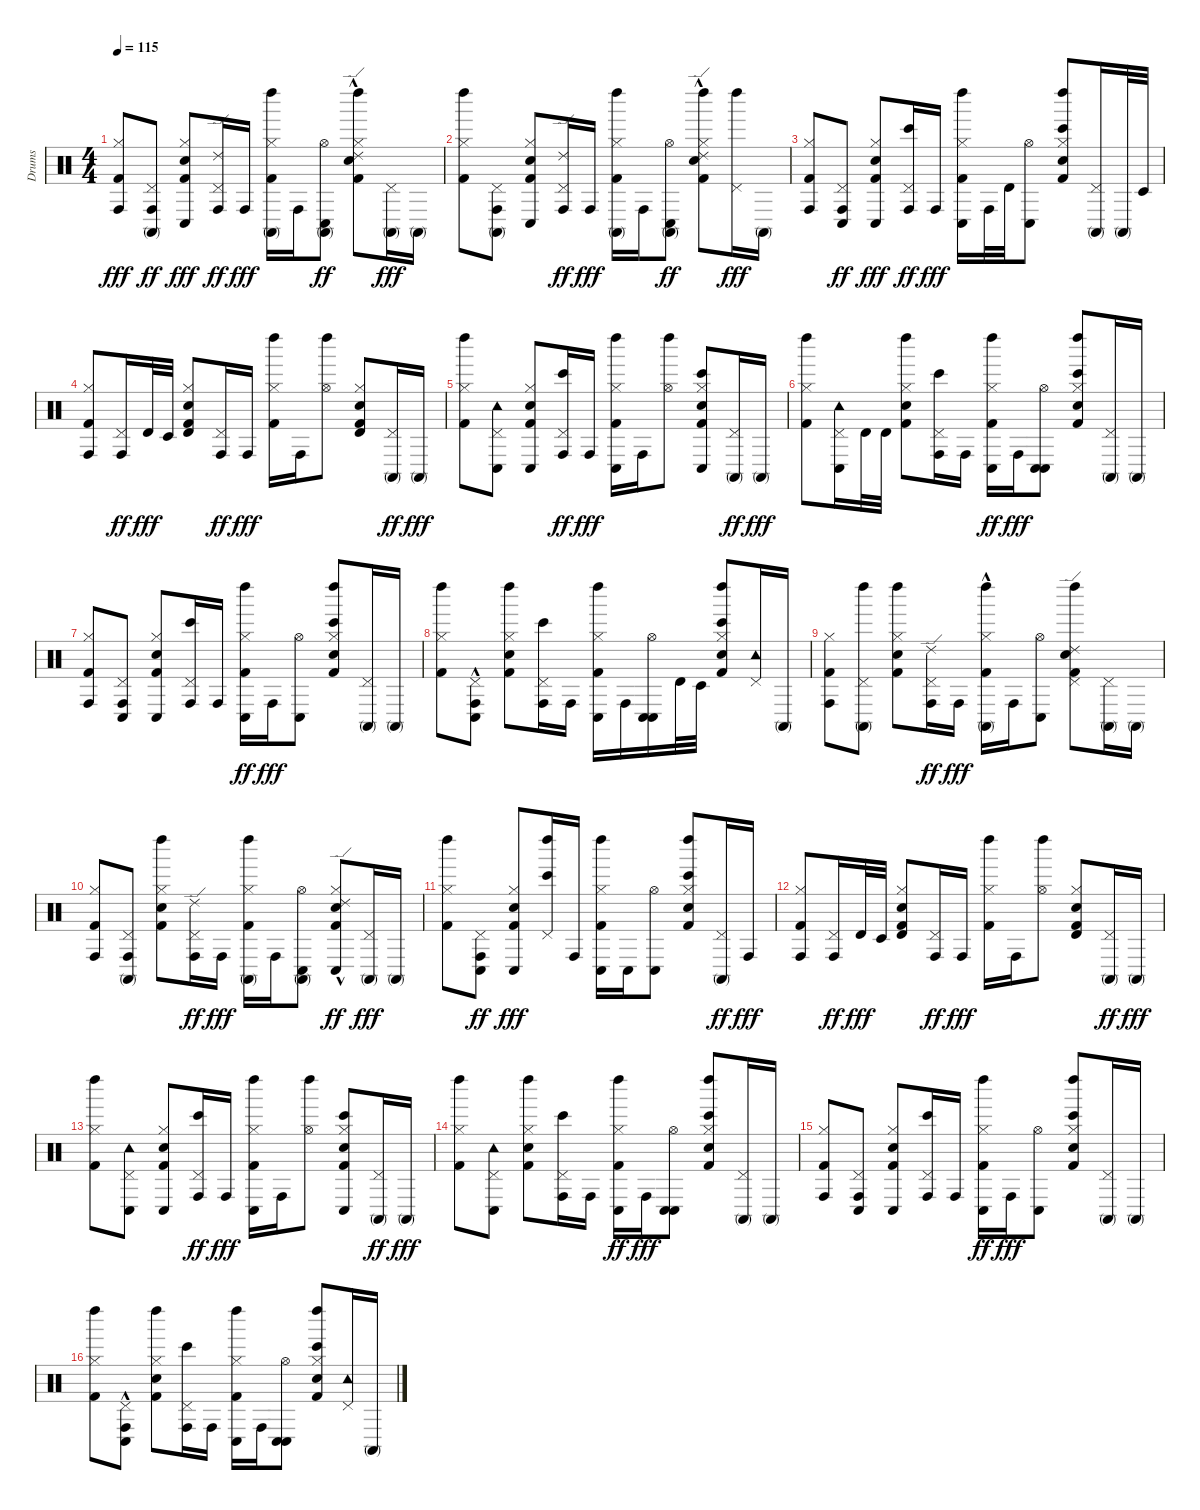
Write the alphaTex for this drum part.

\track ("Drums" "Drums") {instrument percussion}
\staff {score}
\articulation defaults
\ts (4 4)
\tempo 115
\clef neutral
\ks c
("Conga high (hit)" "Hi-Hat (closed)" "Kick (hit) 2").8{dy fff} ("Conga high (mute)" "Conga high (hit)" "Pedal Hi-Hat (hit)").8{dy ff} ("Conga low (hit)" "Hi-Hat (closed)" "Snare (hit) 2" "Kick (hit) 2").8{dy fff} ("Conga high (hit)" "Pedal Hi-Hat (hit)" "Ride (edge) 2").16{dy ff} "Conga high (hit)".16{dy fff} ("Conga high (mute)" "Left Maraca (hit)" "Hi-Hat (closed)" "Kick (hit) 2").16 "Conga high (hit)".16 ("Conga low (hit)" "Hi-Hat (open)" "Conga high (mute)").8{dy ff} ("Left Maraca (hit)" "Hi-Hat (closed)" "Snare (hit) 2" "Kick (hit) 2" "Ride (edge) 2"{hac}).8 ("Conga high (mute)" "Pedal Hi-Hat (hit)").16{dy fff} "Conga high (mute)".16 |
("Left Maraca (hit)" "Hi-Hat (closed)" "Kick (hit) 2").8 ("Conga high (mute)" "Conga high (hit)" "Pedal Hi-Hat (hit)").8 ("Conga low (hit)" "Hi-Hat (closed)" "Snare (hit) 2" "Kick (hit) 2").8 ("Conga high (hit)" "Pedal Hi-Hat (hit)" "Ride (edge) 2").16{dy ff} "Conga high (hit)".16{dy fff} ("Conga high (mute)" "Left Maraca (hit)" "Hi-Hat (closed)" "Kick (hit) 2").16 "Conga high (hit)".16 ("Conga low (hit)" "Hi-Hat (open)" "Conga high (mute)").8{dy ff} ("Left Maraca (hit)" "Hi-Hat (closed)" "Snare (hit) 2" "Kick (hit) 2" "Ride (edge) 2"{hac}).8 ("Left Maraca (hit)" "Pedal Hi-Hat (hit)").16{dy fff} "Conga high (mute)".16 |
("Conga high (hit)" "Hi-Hat (closed)" "Kick (hit) 2").8 ("Conga high (hit)" "Pedal Hi-Hat (hit)" "Conga low (hit)").8{dy ff} ("Conga low (hit)" "Hi-Hat (closed)" "Snare (hit) 2" "Kick (hit) 2").8{dy fff} ("Bongo High (hit)" "Conga high (hit)" "Pedal Hi-Hat (hit)").16{dy ff} "Conga high (hit)".16{dy fff} ("Conga low (hit)" "Left Maraca (hit)" "Hi-Hat (closed)" "Kick (hit) 2").16 "Conga high (hit)".32 "Timbale high (hit)".32 ("Conga low (hit)" "Hi-Hat (open)").8 ("Bongo High (hit)" "Left Maraca (hit)" "Hi-Hat (closed)" "Snare (hit) 2" "Kick (hit) 2").8 ("Conga high (mute)" "Pedal Hi-Hat (hit)").16 "Conga high (mute)".32 "Timbale low (hit)".32 |
("Conga high (hit)" "Hi-Hat (closed)" "Kick (hit) 2").8 ("Conga high (hit)" "Pedal Hi-Hat (hit)").16{dy ff} "Timbale high (hit)".32{dy fff} "Timbale low (hit)".32 ("Timbale high (hit)" "Hi-Hat (closed)" "Snare (hit) 2" "Kick (hit) 2").8 ("Conga high (hit)" "Pedal Hi-Hat (hit)").16{dy ff} "Conga high (hit)".16{dy fff} ("Left Maraca (hit)" "Hi-Hat (closed)" "Kick (hit) 2").16 "Conga high (hit)".16 ("Left Maraca (hit)" "Hi-Hat (open)").8 ("Timbale high (hit)" "Hi-Hat (closed)" "Snare (hit) 2" "Kick (hit) 2").8 ("Conga high (mute)" "Pedal Hi-Hat (hit)").16{dy ff} "Conga high (mute)".16{dy fff} |
("Left Maraca (hit)" "Hi-Hat (closed)" "Kick (hit) 2").8 ("Conga low (hit)" "Pedal Hi-Hat (hit)" "Tambourine (hit)").8 ("Conga low (hit)" "Hi-Hat (closed)" "Snare (hit) 2" "Kick (hit) 2").8 ("Bongo High (hit)" "Conga high (hit)" "Pedal Hi-Hat (hit)").16{dy ff} "Conga high (hit)".16{dy fff} ("Conga low (hit)" "Left Maraca (hit)" "Hi-Hat (closed)" "Kick (hit) 2").16 "Conga high (hit)".16 ("Left Maraca (hit)" "Hi-Hat (open)").8 ("Bongo High (hit)" "Conga low (hit)" "Hi-Hat (closed)" "Snare (hit) 2" "Kick (hit) 2").8 ("Conga high (mute)" "Pedal Hi-Hat (hit)").16{dy ff} "Conga high (mute)".16{dy fff} |
("Left Maraca (hit)" "Hi-Hat (closed)" "Kick (hit) 2").8 ("Conga low (hit)" "Pedal Hi-Hat (hit)" "Tambourine (hit)").16 "Timbale high (hit)".32 "Timbale high (hit)".32 ("Left Maraca (hit)" "Hi-Hat (closed)" "Snare (hit) 2" "Kick (hit) 2").8 ("Bongo High (hit)" "Conga high (hit)" "Pedal Hi-Hat (hit)").16 "Conga high (hit)".16 ("Left Maraca (hit)" "Hi-Hat (closed)" "Kick (hit) 2" "Conga low (hit)").16{dy ff} "Conga high (hit)".16{dy fff} ("Conga low (hit)" "Conga low (hit)" "Hi-Hat (open)").8 ("Bongo High (hit)" "Left Maraca (hit)" "Hi-Hat (closed)" "Snare (hit) 2" "Kick (hit) 2").8 ("Conga high (mute)" "Pedal Hi-Hat (hit)").16 "Conga high (mute)".16 |
("Conga high (hit)" "Hi-Hat (closed)" "Kick (hit) 2").8 ("Conga high (hit)" "Pedal Hi-Hat (hit)" "Conga low (hit)").8 ("Conga low (hit)" "Hi-Hat (closed)" "Snare (hit) 2" "Kick (hit) 2").8 ("Bongo High (hit)" "Conga high (hit)" "Pedal Hi-Hat (hit)").16 "Conga high (hit)".16 ("Left Maraca (hit)" "Hi-Hat (closed)" "Kick (hit) 2" "Conga low (hit)").16{dy ff} "Conga high (hit)".16{dy fff} ("Conga low (hit)" "Hi-Hat (open)").8 ("Bongo High (hit)" "Left Maraca (hit)" "Hi-Hat (closed)" "Snare (hit) 2" "Kick (hit) 2").8 ("Conga high (mute)" "Pedal Hi-Hat (hit)").16 "Conga high (mute)".16 |
("Left Maraca (hit)" "Hi-Hat (closed)" "Kick (hit) 2").8 ("Conga high (hit)" "Pedal Hi-Hat (hit)" "Conga low (hit)"{hac}).8 ("Left Maraca (hit)" "Hi-Hat (closed)" "Snare (hit) 2" "Kick (hit) 2").8 ("Bongo High (hit)" "Conga high (hit)" "Pedal Hi-Hat (hit)").16 "Conga high (hit)".16 ("Conga low (hit)" "Left Maraca (hit)" "Hi-Hat (closed)" "Kick (hit) 2").16 "Conga high (hit)".16 ("Conga low (hit)" "Conga low (hit)" "Hi-Hat (open)").16 "Timbale high (hit)".32 "Timbale low (hit)".32 ("Bongo High (hit)" "Left Maraca (hit)" "Hi-Hat (closed)" "Snare (hit) 2" "Kick (hit) 2").8 ("Pedal Hi-Hat (hit)" "Tambourine (hit)").16 "Conga high (mute)".16 |
("Conga high (hit)" "Hi-Hat (closed)" "Kick (hit) 2").8 ("Conga high (mute)" "Left Maraca (hit)" "Pedal Hi-Hat (hit)").8 ("Left Maraca (hit)" "Hi-Hat (closed)" "Snare (hit) 2" "Kick (hit) 2").8 ("Ride (edge) 2" "Conga high (hit)" "Pedal Hi-Hat (hit)").16{dy ff} "Conga high (hit)".16{dy fff} ("Left Maraca (hit)" "Hi-Hat (closed)" "Kick (hit) 2" "Conga high (mute)"{hac}).16 "Conga high (hit)".16 ("Conga low (hit)" "Hi-Hat (open)").8 ("Ride (edge) 2" "Left Maraca (hit)" "Pedal Hi-Hat (hit)" "Snare (hit) 2" "Kick (hit) 2").8 ("Conga high (mute)" "Pedal Hi-Hat (hit)").16 "Conga high (mute)".16 |
("Conga high (hit)" "Hi-Hat (closed)" "Kick (hit) 2").8 ("Conga high (mute)" "Conga high (hit)" "Pedal Hi-Hat (hit)").8 ("Left Maraca (hit)" "Hi-Hat (closed)" "Snare (hit) 2" "Kick (hit) 2").8 ("Conga high (hit)" "Pedal Hi-Hat (hit)" "Ride (edge) 2").16{dy ff} "Conga high (hit)".16{dy fff} ("Conga high (mute)" "Left Maraca (hit)" "Hi-Hat (closed)" "Kick (hit) 2").16 "Conga high (hit)".16 ("Conga high (mute)" "Conga low (hit)" "Hi-Hat (open)").8 ("Conga low (hit)" "Hi-Hat (closed)" "Snare (hit) 2" "Kick (hit) 2" "Ride (edge) 2"{hac}).8{dy ff} ("Conga high (mute)" "Pedal Hi-Hat (hit)").16{dy fff} "Conga high (mute)".16 |
("Left Maraca (hit)" "Hi-Hat (closed)" "Kick (hit) 2").8 ("Conga low (hit)" "Conga high (hit)" "Pedal Hi-Hat (hit)").8{dy ff} ("Conga low (hit)" "Hi-Hat (closed)" "Snare (hit) 2" "Kick (hit) 2").8{dy fff} ("Bongo High (hit)" "Left Maraca (hit)" "Pedal Hi-Hat (hit)").16 "Conga high (hit)".16 ("Conga low (hit)" "Left Maraca (hit)" "Hi-Hat (closed)" "Kick (hit) 2").16 "Conga low (hit)".16 ("Conga low (hit)" "Hi-Hat (open)").8 ("Bongo High (hit)" "Left Maraca (hit)" "Hi-Hat (closed)" "Snare (hit) 2" "Kick (hit) 2").8 ("Conga high (mute)" "Pedal Hi-Hat (hit)").16{dy ff} "Conga high (hit)".16{dy fff} |
("Conga high (hit)" "Hi-Hat (closed)" "Kick (hit) 2").8 ("Conga high (hit)" "Pedal Hi-Hat (hit)").16{dy ff} "Timbale high (hit)".32{dy fff} "Timbale low (hit)".32 ("Timbale high (hit)" "Hi-Hat (closed)" "Snare (hit) 2" "Kick (hit) 2").8 ("Conga high (hit)" "Pedal Hi-Hat (hit)").16{dy ff} "Conga high (hit)".16{dy fff} ("Left Maraca (hit)" "Hi-Hat (closed)" "Kick (hit) 2").16 "Conga high (hit)".16 ("Left Maraca (hit)" "Hi-Hat (open)").8 ("Timbale high (hit)" "Hi-Hat (closed)" "Snare (hit) 2" "Kick (hit) 2").8 ("Conga high (mute)" "Pedal Hi-Hat (hit)").16{dy ff} "Conga high (mute)".16{dy fff} |
("Left Maraca (hit)" "Hi-Hat (closed)" "Kick (hit) 2").8 ("Conga low (hit)" "Pedal Hi-Hat (hit)" "Tambourine (hit)").8 ("Conga low (hit)" "Hi-Hat (closed)" "Snare (hit) 2" "Kick (hit) 2").8 ("Bongo High (hit)" "Conga high (hit)" "Pedal Hi-Hat (hit)").16{dy ff} "Conga high (hit)".16{dy fff} ("Conga low (hit)" "Left Maraca (hit)" "Hi-Hat (closed)" "Kick (hit) 2").16 "Conga high (hit)".16 ("Left Maraca (hit)" "Hi-Hat (open)").8 ("Bongo High (hit)" "Conga low (hit)" "Hi-Hat (closed)" "Snare (hit) 2" "Kick (hit) 2").8 ("Conga high (mute)" "Pedal Hi-Hat (hit)").16{dy ff} "Conga high (mute)".16{dy fff} |
("Left Maraca (hit)" "Hi-Hat (closed)" "Kick (hit) 2").8 ("Conga low (hit)" "Pedal Hi-Hat (hit)" "Tambourine (hit)").8 ("Left Maraca (hit)" "Hi-Hat (closed)" "Snare (hit) 2" "Kick (hit) 2").8 ("Bongo High (hit)" "Conga high (hit)" "Pedal Hi-Hat (hit)").16 "Conga high (hit)".16 ("Left Maraca (hit)" "Hi-Hat (closed)" "Kick (hit) 2" "Conga low (hit)").16{dy ff} "Conga high (hit)".16{dy fff} ("Conga low (hit)" "Conga low (hit)" "Hi-Hat (open)").8 ("Bongo High (hit)" "Left Maraca (hit)" "Hi-Hat (closed)" "Snare (hit) 2" "Kick (hit) 2").8 ("Conga high (mute)" "Pedal Hi-Hat (hit)").16 "Conga high (mute)".16 |
("Conga high (hit)" "Hi-Hat (closed)" "Kick (hit) 2").8 ("Conga high (hit)" "Pedal Hi-Hat (hit)" "Conga low (hit)").8 ("Conga low (hit)" "Hi-Hat (closed)" "Snare (hit) 2" "Kick (hit) 2").8 ("Bongo High (hit)" "Conga high (hit)" "Pedal Hi-Hat (hit)").16 "Conga high (hit)".16 ("Left Maraca (hit)" "Hi-Hat (closed)" "Kick (hit) 2" "Conga low (hit)").16{dy ff} "Conga high (hit)".16{dy fff} ("Conga low (hit)" "Hi-Hat (open)").8 ("Bongo High (hit)" "Left Maraca (hit)" "Hi-Hat (closed)" "Snare (hit) 2" "Kick (hit) 2").8 ("Conga high (mute)" "Pedal Hi-Hat (hit)").16 "Conga high (mute)".16 |
("Left Maraca (hit)" "Hi-Hat (closed)" "Kick (hit) 2").8 ("Conga high (hit)" "Pedal Hi-Hat (hit)" "Conga low (hit)"{hac}).8 ("Left Maraca (hit)" "Hi-Hat (closed)" "Snare (hit) 2" "Kick (hit) 2").8 ("Bongo High (hit)" "Conga high (hit)" "Pedal Hi-Hat (hit)").16 "Conga high (hit)".16 ("Conga low (hit)" "Left Maraca (hit)" "Hi-Hat (closed)" "Kick (hit) 2").16 "Conga high (hit)".16 ("Conga low (hit)" "Conga low (hit)" "Hi-Hat (open)").8 ("Bongo High (hit)" "Left Maraca (hit)" "Hi-Hat (closed)" "Snare (hit) 2" "Kick (hit) 2").8 ("Pedal Hi-Hat (hit)" "Tambourine (hit)").16 "Conga high (mute)".16
